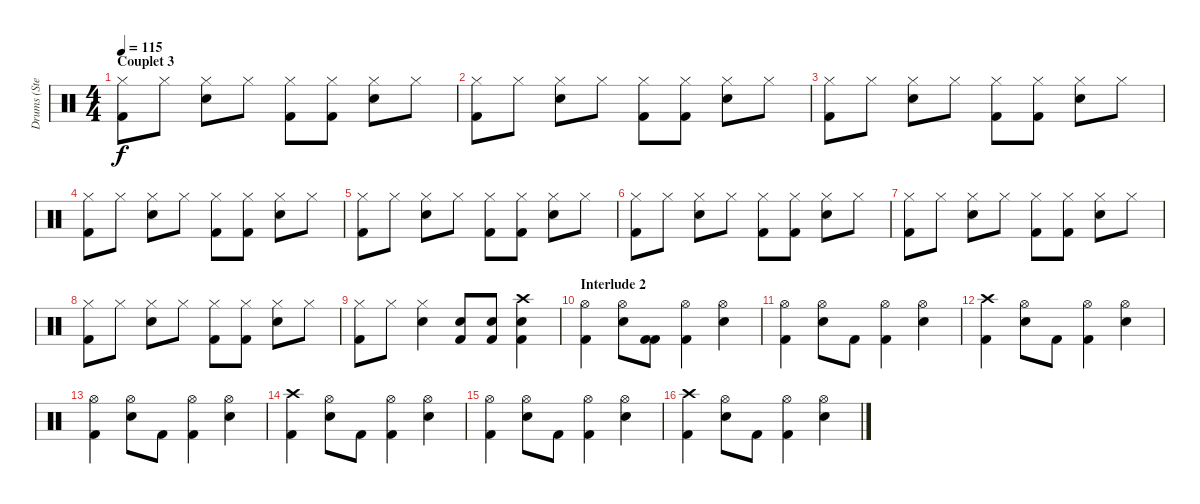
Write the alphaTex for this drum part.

\track ("Drums (Stewart)           " "Drums (Ste") {instrument percussion}
\staff {score}
\articulation defaults
\ts (4 4)
\section ("" "Couplet 3")
\tempo 115
\clef neutral
\ks c
("Hi-Hat (closed)" "Kick (hit) 2").8{dy f} "Hi-Hat (closed)".8 ("Hi-Hat (closed)" "Snare (hit) 2").8 "Hi-Hat (closed)".8 ("Hi-Hat (closed)" "Kick (hit) 2").8 ("Hi-Hat (closed)" "Kick (hit) 2").8 ("Hi-Hat (closed)" "Snare (hit) 2").8 "Hi-Hat (closed)".8 |
("Hi-Hat (closed)" "Kick (hit) 2").8 "Hi-Hat (closed)".8 ("Hi-Hat (closed)" "Snare (hit) 2").8 "Hi-Hat (closed)".8 ("Hi-Hat (closed)" "Kick (hit) 2").8 ("Hi-Hat (closed)" "Kick (hit) 2").8 ("Hi-Hat (closed)" "Snare (hit) 2").8 "Hi-Hat (closed)".8 |
("Hi-Hat (closed)" "Kick (hit) 2").8 "Hi-Hat (closed)".8 ("Hi-Hat (closed)" "Snare (hit) 2").8 "Hi-Hat (closed)".8 ("Hi-Hat (closed)" "Kick (hit) 2").8 ("Hi-Hat (closed)" "Kick (hit) 2").8 ("Hi-Hat (closed)" "Snare (hit) 2").8 "Hi-Hat (closed)".8 |
("Hi-Hat (closed)" "Kick (hit) 2").8 "Hi-Hat (closed)".8 ("Hi-Hat (closed)" "Snare (hit) 2").8 "Hi-Hat (closed)".8 ("Hi-Hat (closed)" "Kick (hit) 2").8 ("Hi-Hat (closed)" "Kick (hit) 2").8 ("Hi-Hat (closed)" "Snare (hit) 2").8 "Hi-Hat (closed)".8 |
("Hi-Hat (closed)" "Kick (hit) 2").8 "Hi-Hat (closed)".8 ("Hi-Hat (closed)" "Snare (hit) 2").8 "Hi-Hat (closed)".8 ("Hi-Hat (closed)" "Kick (hit) 2").8 ("Hi-Hat (closed)" "Kick (hit) 2").8 ("Hi-Hat (closed)" "Snare (hit) 2").8 "Hi-Hat (closed)".8 |
("Hi-Hat (closed)" "Kick (hit) 2").8 "Hi-Hat (closed)".8 ("Hi-Hat (closed)" "Snare (hit) 2").8 "Hi-Hat (closed)".8 ("Hi-Hat (closed)" "Kick (hit) 2").8 ("Hi-Hat (closed)" "Kick (hit) 2").8 ("Hi-Hat (closed)" "Snare (hit) 2").8 "Hi-Hat (closed)".8 |
("Hi-Hat (closed)" "Kick (hit) 2").8 "Hi-Hat (closed)".8 ("Hi-Hat (closed)" "Snare (hit) 2").8 "Hi-Hat (closed)".8 ("Hi-Hat (closed)" "Kick (hit) 2").8 ("Hi-Hat (closed)" "Kick (hit) 2").8 ("Hi-Hat (closed)" "Snare (hit) 2").8 "Hi-Hat (closed)".8 |
("Hi-Hat (closed)" "Kick (hit) 2").8 "Hi-Hat (closed)".8 ("Hi-Hat (closed)" "Snare (hit) 2").8 "Hi-Hat (closed)".8 ("Hi-Hat (closed)" "Kick (hit) 2").8 ("Hi-Hat (closed)" "Kick (hit) 2").8 ("Hi-Hat (closed)" "Snare (hit) 2").8 "Hi-Hat (closed)".8 |
("Hi-Hat (closed)" "Kick (hit) 2").8 "Hi-Hat (closed)".8 ("Hi-Hat (closed)" "Snare (hit) 2").4 ("Snare (hit) 2" "Kick (hit) 2").8 ("Snare (hit) 2" "Kick (hit) 2").8 ("Crash high (hit)" "Snare (hit) 2" "Kick (hit) 2").4 |
\section ("" "Interlude 2")
("Hi-Hat (open)" "Kick (hit) 2").4 ("Hi-Hat (open)" "Snare (hit) 2").8 ("Kick (hit) 2" "Kick (hit) 2").8 ("Hi-Hat (open)" "Kick (hit) 2").4 ("Hi-Hat (open)" "Snare (hit) 2").4 |
("Hi-Hat (open)" "Kick (hit) 2").4 ("Hi-Hat (open)" "Snare (hit) 2").8 "Kick (hit) 2".8 ("Hi-Hat (open)" "Kick (hit) 2").4 ("Hi-Hat (open)" "Snare (hit) 2").4 |
("Crash high (hit)" "Kick (hit) 2").4 ("Hi-Hat (open)" "Snare (hit) 2").8 "Kick (hit) 2".8 ("Hi-Hat (open)" "Kick (hit) 2").4 ("Hi-Hat (open)" "Snare (hit) 2").4 |
("Hi-Hat (open)" "Kick (hit) 2").4 ("Hi-Hat (open)" "Snare (hit) 2").8 "Kick (hit) 2".8 ("Hi-Hat (open)" "Kick (hit) 2").4 ("Hi-Hat (open)" "Snare (hit) 2").4 |
("Crash high (hit)" "Kick (hit) 2").4 ("Hi-Hat (open)" "Snare (hit) 2").8 "Kick (hit) 2".8 ("Hi-Hat (open)" "Kick (hit) 2").4 ("Hi-Hat (open)" "Snare (hit) 2").4 |
("Hi-Hat (open)" "Kick (hit) 2").4 ("Hi-Hat (open)" "Snare (hit) 2").8 "Kick (hit) 2".8 ("Hi-Hat (open)" "Kick (hit) 2").4 ("Hi-Hat (open)" "Snare (hit) 2").4 |
("Crash high (hit)" "Kick (hit) 2").4 ("Hi-Hat (open)" "Snare (hit) 2").8 "Kick (hit) 2".8 ("Hi-Hat (open)" "Kick (hit) 2").4 ("Hi-Hat (open)" "Snare (hit) 2").4
